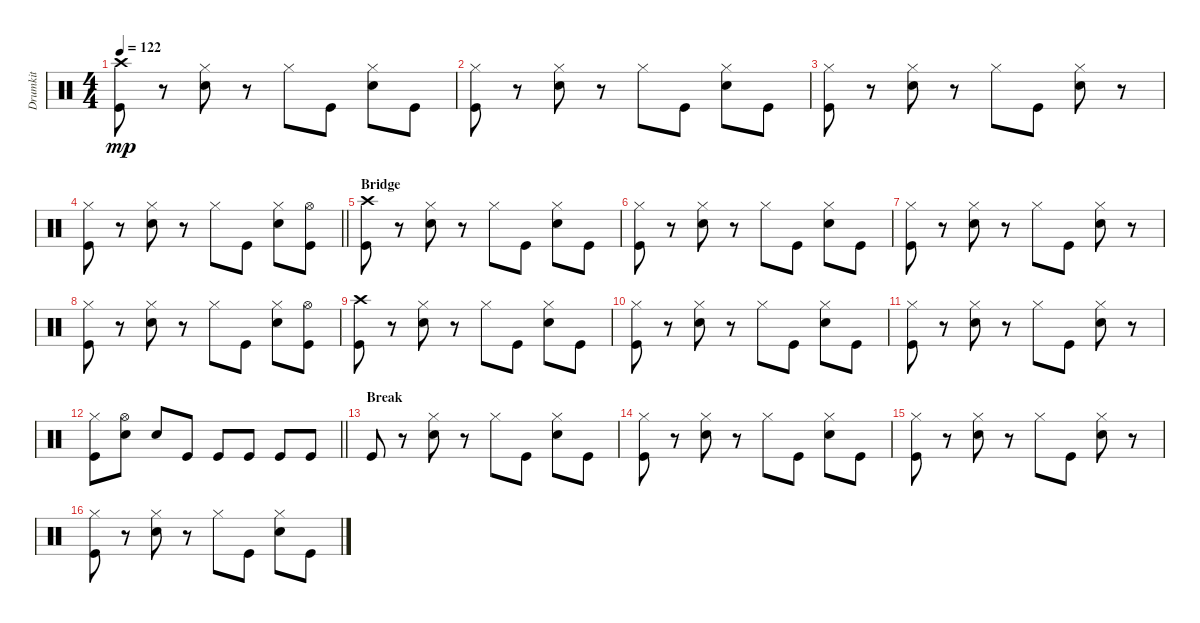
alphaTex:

\track ("Drumkit" "Drumkit") {instrument percussion}
\staff {score}
\articulation defaults
\ts (4 4)
\tempo 122
\clef neutral
\ks c
("Kick (hit)" "Crash high (hit)").8{dy mp} r.8 ("Snare (hit) 2" "Hi-Hat (closed)").8 r.8 "Hi-Hat (closed)".8 "Kick (hit)".8 ("Snare (hit) 2" "Hi-Hat (closed)").8 "Kick (hit)".8 |
("Kick (hit)" "Hi-Hat (closed)").8 r.8 ("Snare (hit) 2" "Hi-Hat (closed)").8 r.8 "Hi-Hat (closed)".8 "Kick (hit)".8 ("Snare (hit) 2" "Hi-Hat (closed)").8 "Kick (hit)".8 |
("Kick (hit)" "Hi-Hat (closed)").8 r.8 ("Snare (hit) 2" "Hi-Hat (closed)").8 r.8 "Hi-Hat (closed)".8 "Kick (hit)".8 ("Snare (hit) 2" "Hi-Hat (closed)").8 r.8 |
\barLineRight lightlight
("Kick (hit)" "Hi-Hat (closed)").8 r.8 ("Snare (hit) 2" "Hi-Hat (closed)").8 r.8 "Hi-Hat (closed)".8 "Kick (hit)".8 ("Snare (hit) 2" "Hi-Hat (closed)").8 ("Kick (hit)" "Hi-Hat (open)").8 |
\section ("" "Bridge")
("Kick (hit)" "Crash high (hit)").8 r.8 ("Snare (hit) 2" "Hi-Hat (closed)").8 r.8 "Hi-Hat (closed)".8 "Kick (hit)".8 ("Snare (hit) 2" "Hi-Hat (closed)").8 "Kick (hit)".8 |
("Kick (hit)" "Hi-Hat (closed)").8 r.8 ("Snare (hit) 2" "Hi-Hat (closed)").8 r.8 "Hi-Hat (closed)".8 "Kick (hit)".8 ("Snare (hit) 2" "Hi-Hat (closed)").8 "Kick (hit)".8 |
("Kick (hit)" "Hi-Hat (closed)").8 r.8 ("Snare (hit) 2" "Hi-Hat (closed)").8 r.8 "Hi-Hat (closed)".8 "Kick (hit)".8 ("Snare (hit) 2" "Hi-Hat (closed)").8 r.8 |
("Kick (hit)" "Hi-Hat (closed)").8 r.8 ("Snare (hit) 2" "Hi-Hat (closed)").8 r.8 "Hi-Hat (closed)".8 "Kick (hit)".8 ("Snare (hit) 2" "Hi-Hat (closed)").8 ("Kick (hit)" "Hi-Hat (open)").8 |
("Kick (hit)" "Crash high (hit)").8 r.8 ("Snare (hit) 2" "Hi-Hat (closed)").8 r.8 "Hi-Hat (closed)".8 "Kick (hit)".8 ("Snare (hit) 2" "Hi-Hat (closed)").8 "Kick (hit)".8 |
("Kick (hit)" "Hi-Hat (closed)").8 r.8 ("Snare (hit) 2" "Hi-Hat (closed)").8 r.8 "Hi-Hat (closed)".8 "Kick (hit)".8 ("Snare (hit) 2" "Hi-Hat (closed)").8 "Kick (hit)".8 |
("Kick (hit)" "Hi-Hat (closed)").8 r.8 ("Snare (hit) 2" "Hi-Hat (closed)").8 r.8 "Hi-Hat (closed)".8 "Kick (hit)".8 ("Snare (hit) 2" "Hi-Hat (closed)").8 r.8 |
\barLineRight lightlight
("Hi-Hat (closed)" "Kick (hit)").8 ("Snare (hit) 2" "Hi-Hat (open)").8 "Snare (hit) 2".8 "Kick (hit)".8 "Kick (hit)".8 "Kick (hit)".8 "Kick (hit)".8 "Kick (hit)".8 |
\section ("" "Break")
"Kick (hit)".8 r.8 ("Snare (hit) 2" "Hi-Hat (closed)").8 r.8 "Hi-Hat (closed)".8 "Kick (hit)".8 ("Snare (hit) 2" "Hi-Hat (closed)").8 "Kick (hit)".8 |
("Kick (hit)" "Hi-Hat (closed)").8 r.8 ("Snare (hit) 2" "Hi-Hat (closed)").8 r.8 "Hi-Hat (closed)".8 "Kick (hit)".8 ("Snare (hit) 2" "Hi-Hat (closed)").8 "Kick (hit)".8 |
("Kick (hit)" "Hi-Hat (closed)").8 r.8 ("Snare (hit) 2" "Hi-Hat (closed)").8 r.8 "Hi-Hat (closed)".8 "Kick (hit)".8 ("Snare (hit) 2" "Hi-Hat (closed)").8 r.8 |
("Kick (hit)" "Hi-Hat (closed)").8 r.8 ("Snare (hit) 2" "Hi-Hat (closed)").8 r.8 "Hi-Hat (closed)".8 "Kick (hit)".8 ("Snare (hit) 2" "Hi-Hat (closed)").8 "Kick (hit)".8
